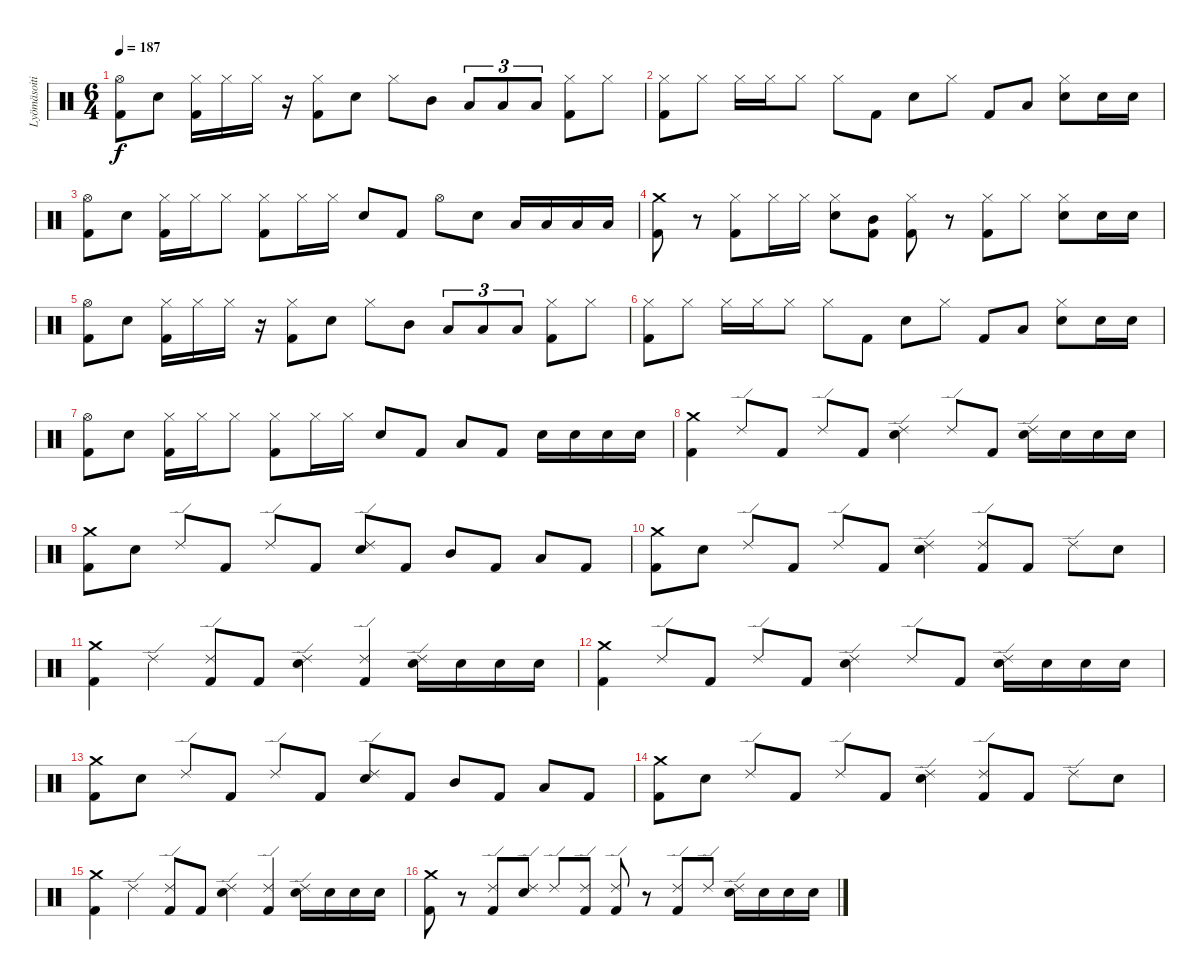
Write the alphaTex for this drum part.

\track ("Lyömäsoitin" "Lyömäsoiti") {instrument percussion}
\staff {score}
\articulation defaults
\ts (6 4)
\tempo 187
\clef neutral
\ks c
("Kick (hit) 2" "Hi-Hat (open)").8{dy f} "Snare (hit) 2".8 ("Kick (hit) 2" "Hi-Hat (closed)").16 "Hi-Hat (closed)".16 "Hi-Hat (closed)".16 r.16 ("Kick (hit) 2" "Hi-Hat (closed)").8 "Snare (hit) 2".8 "Hi-Hat (closed)".8 "Mid Tom (hit)".8 "Low Tom (hit)".8{tu (3 2)} "Low Tom (hit)".8{tu (3 2)} "Low Tom (hit)".8{tu (3 2)} ("Hi-Hat (closed)" "Kick (hit) 2").8 "Hi-Hat (closed)".8 |
("Kick (hit) 2" "Hi-Hat (closed)").8 "Hi-Hat (closed)".8 "Hi-Hat (closed)".16 "Hi-Hat (closed)".16 "Hi-Hat (closed)".8 "Hi-Hat (closed)".8 "Kick (hit) 2".8 "Snare (hit) 2".8 "Hi-Hat (closed)".8 "Kick (hit) 2".8 "Low Tom (hit)".8 ("Snare (hit) 2" "Hi-Hat (closed)").8 "Snare (hit) 2".16 "Snare (hit) 2".16 |
("Hi-Hat (open)" "Kick (hit) 2").8 "Snare (hit) 2".8 ("Hi-Hat (closed)" "Kick (hit) 2").16 "Hi-Hat (closed)".16 "Hi-Hat (closed)".8 ("Kick (hit) 2" "Hi-Hat (closed)").8 "Hi-Hat (closed)".16 "Hi-Hat (closed)".16 "Snare (hit) 2".8 "Kick (hit) 2".8 "Hi-Hat (open)".8 "Snare (hit) 2".8 "Low Tom (hit)".16 "Low Tom (hit)".16 "Low Tom (hit)".16 "Low Tom (hit)".16 |
("Kick (hit) 2" "Crash medium (hit)").8 r.8 ("Kick (hit) 2" "Hi-Hat (closed)").8 "Hi-Hat (closed)".16 "Hi-Hat (closed)".16 ("Hi-Hat (closed)" "Snare (hit) 2").8 ("Kick (hit) 2" "Mid Tom (hit)").8 ("Kick (hit) 2" "Hi-Hat (closed)").8 r.8 ("Hi-Hat (closed)" "Kick (hit) 2").8 "Hi-Hat (closed)".8 ("Snare (hit) 2" "Hi-Hat (closed)").8 "Snare (hit) 2".16 "Snare (hit) 2".16 |
("Kick (hit) 2" "Hi-Hat (open)").8 "Snare (hit) 2".8 ("Kick (hit) 2" "Hi-Hat (closed)").16 "Hi-Hat (closed)".16 "Hi-Hat (closed)".16 r.16 ("Kick (hit) 2" "Hi-Hat (closed)").8 "Snare (hit) 2".8 "Hi-Hat (closed)".8 "Mid Tom (hit)".8 "Low Tom (hit)".8{tu (3 2)} "Low Tom (hit)".8{tu (3 2)} "Low Tom (hit)".8{tu (3 2)} ("Hi-Hat (closed)" "Kick (hit) 2").8 "Hi-Hat (closed)".8 |
("Kick (hit) 2" "Hi-Hat (closed)").8 "Hi-Hat (closed)".8 "Hi-Hat (closed)".16 "Hi-Hat (closed)".16 "Hi-Hat (closed)".8 "Hi-Hat (closed)".8 "Kick (hit) 2".8 "Snare (hit) 2".8 "Hi-Hat (closed)".8 "Kick (hit) 2".8 "Low Tom (hit)".8 ("Snare (hit) 2" "Hi-Hat (closed)").8 "Snare (hit) 2".16 "Snare (hit) 2".16 |
("Hi-Hat (open)" "Kick (hit) 2").8 "Snare (hit) 2".8 ("Hi-Hat (closed)" "Kick (hit) 2").16 "Hi-Hat (closed)".16 "Hi-Hat (closed)".8 ("Kick (hit) 2" "Hi-Hat (closed)").8 "Hi-Hat (closed)".16 "Hi-Hat (closed)".16 "Snare (hit) 2".8 "Kick (hit) 2".8 "Low Tom (hit)".8 "Kick (hit) 2".8 "Snare (hit) 2".16 "Snare (hit) 2".16 "Snare (hit) 2".16 "Snare (hit) 2".16 |
("Kick (hit) 2" "Crash medium (hit)").4 "Ride (edge) 2".8 "Kick (hit) 2".8 "Ride (edge) 2".8 "Kick (hit) 2".8 ("Ride (edge) 2" "Snare (hit) 2").4 "Ride (edge) 2".8 "Kick (hit) 2".8 ("Snare (hit) 2" "Ride (edge) 2").16 "Snare (hit) 2".16 "Snare (hit) 2".16 "Snare (hit) 2".16 |
("Kick (hit) 2" "Crash medium (hit)").8 "Snare (hit) 2".8 "Ride (edge) 2".8 "Kick (hit) 2".8 "Ride (edge) 2".8 "Kick (hit) 2".8 ("Ride (edge) 2" "Snare (hit) 2").8 "Kick (hit) 2".8 "Mid Tom (hit)".8 "Kick (hit) 2".8 "Low Tom (hit)".8 "Kick (hit) 2".8 |
("Kick (hit) 2" "Crash medium (hit)").8 "Snare (hit) 2".8 "Ride (edge) 2".8 "Kick (hit) 2".8 "Ride (edge) 2".8 "Kick (hit) 2".8 ("Ride (edge) 2" "Snare (hit) 2").4 ("Ride (edge) 2" "Kick (hit) 2").8 "Kick (hit) 2".8 "Ride (edge) 2".8 "Snare (hit) 2".8 |
("Kick (hit) 2" "Crash medium (hit)").4 "Ride (edge) 2".4 ("Ride (edge) 2" "Kick (hit) 2").8 "Kick (hit) 2".8 ("Ride (edge) 2" "Snare (hit) 2").4 ("Ride (edge) 2" "Kick (hit) 2").4 ("Ride (edge) 2" "Snare (hit) 2").16 "Snare (hit) 2".16 "Snare (hit) 2".16 "Snare (hit) 2".16 |
("Kick (hit) 2" "Crash medium (hit)").4 "Ride (edge) 2".8 "Kick (hit) 2".8 "Ride (edge) 2".8 "Kick (hit) 2".8 ("Ride (edge) 2" "Snare (hit) 2").4 "Ride (edge) 2".8 "Kick (hit) 2".8 ("Snare (hit) 2" "Ride (edge) 2").16 "Snare (hit) 2".16 "Snare (hit) 2".16 "Snare (hit) 2".16 |
("Kick (hit) 2" "Crash medium (hit)").8 "Snare (hit) 2".8 "Ride (edge) 2".8 "Kick (hit) 2".8 "Ride (edge) 2".8 "Kick (hit) 2".8 ("Ride (edge) 2" "Snare (hit) 2").8 "Kick (hit) 2".8 "Mid Tom (hit)".8 "Kick (hit) 2".8 "Low Tom (hit)".8 "Kick (hit) 2".8 |
("Kick (hit) 2" "Crash medium (hit)").8 "Snare (hit) 2".8 "Ride (edge) 2".8 "Kick (hit) 2".8 "Ride (edge) 2".8 "Kick (hit) 2".8 ("Ride (edge) 2" "Snare (hit) 2").4 ("Ride (edge) 2" "Kick (hit) 2").8 "Kick (hit) 2".8 "Ride (edge) 2".8 "Snare (hit) 2".8 |
("Kick (hit) 2" "Crash medium (hit)").4 "Ride (edge) 2".4 ("Ride (edge) 2" "Kick (hit) 2").8 "Kick (hit) 2".8 ("Ride (edge) 2" "Snare (hit) 2").4 ("Ride (edge) 2" "Kick (hit) 2").4 ("Ride (edge) 2" "Snare (hit) 2").16 "Snare (hit) 2".16 "Snare (hit) 2".16 "Snare (hit) 2".16 |
("Kick (hit) 2" "Crash medium (hit)").8 r.8 ("Kick (hit) 2" "Ride (edge) 2").8 ("Snare (hit) 2" "Ride (edge) 2").8 "Ride (edge) 2".8 ("Ride (edge) 2" "Kick (hit) 2").8 ("Ride (edge) 2" "Kick (hit) 2").8 r.8 ("Ride (edge) 2" "Kick (hit) 2").8 "Ride (edge) 2".8 ("Ride (edge) 2" "Snare (hit) 2").16 "Snare (hit) 2".16 "Snare (hit) 2".16 "Snare (hit) 2".16
